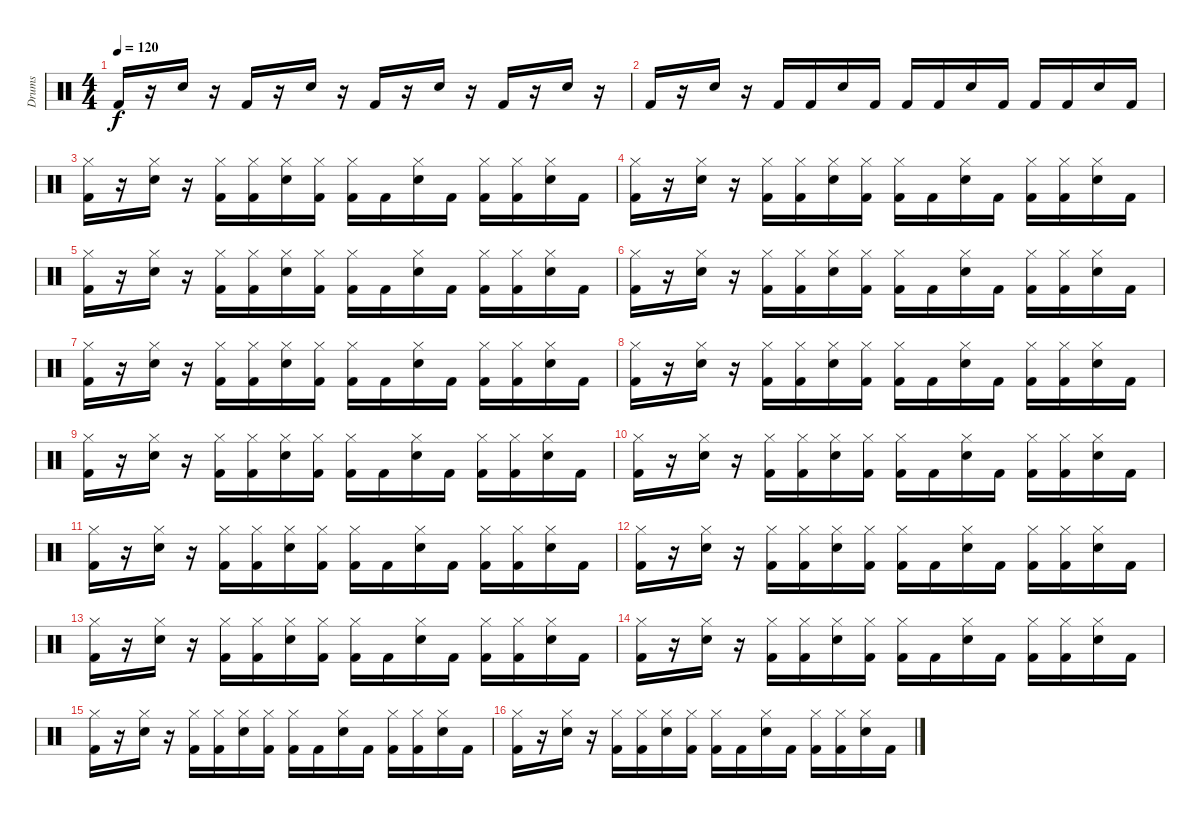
\track ("Drums" "Drums") {instrument percussion}
\staff {score}
\articulation defaults
\ts (4 4)
\tempo 120
\clef neutral
\ks c "Kick (hit) 2".16{dy f}
r.16 "Snare (hit) 2".16 r.16 "Kick (hit) 2".16 r.16 "Snare (hit) 2".16 r.16 "Kick (hit) 2".16 r.16 "Snare (hit) 2".16 r.16 "Kick (hit) 2".16 r.16 "Snare (hit) 2".16 r.16 |
"Kick (hit) 2".16 r.16 "Snare (hit) 2".16 r.16 "Kick (hit) 2".16 "Kick (hit) 2".16 "Snare (hit) 2".16 "Kick (hit) 2".16 "Kick (hit) 2".16 "Kick (hit) 2".16 "Snare (hit) 2".16 "Kick (hit) 2".16 "Kick (hit) 2".16 "Kick (hit) 2".16 "Snare (hit) 2".16 "Kick (hit) 2".16 |
("Hi-Hat (closed)" "Kick (hit) 2").16 r.16 ("Hi-Hat (closed)" "Snare (hit) 2").16 r.16 ("Hi-Hat (closed)" "Kick (hit) 2").16 ("Hi-Hat (closed)" "Kick (hit) 2").16 ("Hi-Hat (closed)" "Snare (hit) 2").16 ("Hi-Hat (closed)" "Kick (hit) 2").16 ("Hi-Hat (closed)" "Kick (hit) 2").16 "Kick (hit) 2".16 ("Hi-Hat (closed)" "Snare (hit) 2").16 "Kick (hit) 2".16 ("Hi-Hat (closed)" "Kick (hit) 2").16 ("Hi-Hat (closed)" "Kick (hit) 2").16 ("Hi-Hat (closed)" "Snare (hit) 2").16 "Kick (hit) 2".16 |
("Hi-Hat (closed)" "Kick (hit) 2").16 r.16 ("Hi-Hat (closed)" "Snare (hit) 2").16 r.16 ("Hi-Hat (closed)" "Kick (hit) 2").16 ("Hi-Hat (closed)" "Kick (hit) 2").16 ("Hi-Hat (closed)" "Snare (hit) 2").16 ("Hi-Hat (closed)" "Kick (hit) 2").16 ("Hi-Hat (closed)" "Kick (hit) 2").16 "Kick (hit) 2".16 ("Hi-Hat (closed)" "Snare (hit) 2").16 "Kick (hit) 2".16 ("Hi-Hat (closed)" "Kick (hit) 2").16 ("Hi-Hat (closed)" "Kick (hit) 2").16 ("Hi-Hat (closed)" "Snare (hit) 2").16 "Kick (hit) 2".16 |
("Hi-Hat (closed)" "Kick (hit) 2").16 r.16 ("Hi-Hat (closed)" "Snare (hit) 2").16 r.16 ("Hi-Hat (closed)" "Kick (hit) 2").16 ("Hi-Hat (closed)" "Kick (hit) 2").16 ("Hi-Hat (closed)" "Snare (hit) 2").16 ("Hi-Hat (closed)" "Kick (hit) 2").16 ("Hi-Hat (closed)" "Kick (hit) 2").16 "Kick (hit) 2".16 ("Hi-Hat (closed)" "Snare (hit) 2").16 "Kick (hit) 2".16 ("Hi-Hat (closed)" "Kick (hit) 2").16 ("Hi-Hat (closed)" "Kick (hit) 2").16 ("Hi-Hat (closed)" "Snare (hit) 2").16 "Kick (hit) 2".16 |
("Hi-Hat (closed)" "Kick (hit) 2").16 r.16 ("Hi-Hat (closed)" "Snare (hit) 2").16 r.16 ("Hi-Hat (closed)" "Kick (hit) 2").16 ("Hi-Hat (closed)" "Kick (hit) 2").16 ("Hi-Hat (closed)" "Snare (hit) 2").16 ("Hi-Hat (closed)" "Kick (hit) 2").16 ("Hi-Hat (closed)" "Kick (hit) 2").16 "Kick (hit) 2".16 ("Hi-Hat (closed)" "Snare (hit) 2").16 "Kick (hit) 2".16 ("Hi-Hat (closed)" "Kick (hit) 2").16 ("Hi-Hat (closed)" "Kick (hit) 2").16 ("Hi-Hat (closed)" "Snare (hit) 2").16 "Kick (hit) 2".16 |
("Hi-Hat (closed)" "Kick (hit) 2").16 r.16 ("Hi-Hat (closed)" "Snare (hit) 2").16 r.16 ("Hi-Hat (closed)" "Kick (hit) 2").16 ("Hi-Hat (closed)" "Kick (hit) 2").16 ("Hi-Hat (closed)" "Snare (hit) 2").16 ("Hi-Hat (closed)" "Kick (hit) 2").16 ("Hi-Hat (closed)" "Kick (hit) 2").16 "Kick (hit) 2".16 ("Hi-Hat (closed)" "Snare (hit) 2").16 "Kick (hit) 2".16 ("Hi-Hat (closed)" "Kick (hit) 2").16 ("Hi-Hat (closed)" "Kick (hit) 2").16 ("Hi-Hat (closed)" "Snare (hit) 2").16 "Kick (hit) 2".16 |
("Hi-Hat (closed)" "Kick (hit) 2").16 r.16 ("Hi-Hat (closed)" "Snare (hit) 2").16 r.16 ("Hi-Hat (closed)" "Kick (hit) 2").16 ("Hi-Hat (closed)" "Kick (hit) 2").16 ("Hi-Hat (closed)" "Snare (hit) 2").16 ("Hi-Hat (closed)" "Kick (hit) 2").16 ("Hi-Hat (closed)" "Kick (hit) 2").16 "Kick (hit) 2".16 ("Hi-Hat (closed)" "Snare (hit) 2").16 "Kick (hit) 2".16 ("Hi-Hat (closed)" "Kick (hit) 2").16 ("Hi-Hat (closed)" "Kick (hit) 2").16 ("Hi-Hat (closed)" "Snare (hit) 2").16 "Kick (hit) 2".16 |
("Hi-Hat (closed)" "Kick (hit) 2").16 r.16 ("Hi-Hat (closed)" "Snare (hit) 2").16 r.16 ("Hi-Hat (closed)" "Kick (hit) 2").16 ("Hi-Hat (closed)" "Kick (hit) 2").16 ("Hi-Hat (closed)" "Snare (hit) 2").16 ("Hi-Hat (closed)" "Kick (hit) 2").16 ("Hi-Hat (closed)" "Kick (hit) 2").16 "Kick (hit) 2".16 ("Hi-Hat (closed)" "Snare (hit) 2").16 "Kick (hit) 2".16 ("Hi-Hat (closed)" "Kick (hit) 2").16 ("Hi-Hat (closed)" "Kick (hit) 2").16 ("Hi-Hat (closed)" "Snare (hit) 2").16 "Kick (hit) 2".16 |
("Hi-Hat (closed)" "Kick (hit) 2").16 r.16 ("Hi-Hat (closed)" "Snare (hit) 2").16 r.16 ("Hi-Hat (closed)" "Kick (hit) 2").16 ("Hi-Hat (closed)" "Kick (hit) 2").16 ("Hi-Hat (closed)" "Snare (hit) 2").16 ("Hi-Hat (closed)" "Kick (hit) 2").16 ("Hi-Hat (closed)" "Kick (hit) 2").16 "Kick (hit) 2".16 ("Hi-Hat (closed)" "Snare (hit) 2").16 "Kick (hit) 2".16 ("Hi-Hat (closed)" "Kick (hit) 2").16 ("Hi-Hat (closed)" "Kick (hit) 2").16 ("Hi-Hat (closed)" "Snare (hit) 2").16 "Kick (hit) 2".16 |
("Hi-Hat (closed)" "Kick (hit) 2").16 r.16 ("Hi-Hat (closed)" "Snare (hit) 2").16 r.16 ("Hi-Hat (closed)" "Kick (hit) 2").16 ("Hi-Hat (closed)" "Kick (hit) 2").16 ("Hi-Hat (closed)" "Snare (hit) 2").16 ("Hi-Hat (closed)" "Kick (hit) 2").16 ("Hi-Hat (closed)" "Kick (hit) 2").16 "Kick (hit) 2".16 ("Hi-Hat (closed)" "Snare (hit) 2").16 "Kick (hit) 2".16 ("Hi-Hat (closed)" "Kick (hit) 2").16 ("Hi-Hat (closed)" "Kick (hit) 2").16 ("Hi-Hat (closed)" "Snare (hit) 2").16 "Kick (hit) 2".16 |
("Hi-Hat (closed)" "Kick (hit) 2").16 r.16 ("Hi-Hat (closed)" "Snare (hit) 2").16 r.16 ("Hi-Hat (closed)" "Kick (hit) 2").16 ("Hi-Hat (closed)" "Kick (hit) 2").16 ("Hi-Hat (closed)" "Snare (hit) 2").16 ("Hi-Hat (closed)" "Kick (hit) 2").16 ("Hi-Hat (closed)" "Kick (hit) 2").16 "Kick (hit) 2".16 ("Hi-Hat (closed)" "Snare (hit) 2").16 "Kick (hit) 2".16 ("Hi-Hat (closed)" "Kick (hit) 2").16 ("Hi-Hat (closed)" "Kick (hit) 2").16 ("Hi-Hat (closed)" "Snare (hit) 2").16 "Kick (hit) 2".16 |
("Hi-Hat (closed)" "Kick (hit) 2").16 r.16 ("Hi-Hat (closed)" "Snare (hit) 2").16 r.16 ("Hi-Hat (closed)" "Kick (hit) 2").16 ("Hi-Hat (closed)" "Kick (hit) 2").16 ("Hi-Hat (closed)" "Snare (hit) 2").16 ("Hi-Hat (closed)" "Kick (hit) 2").16 ("Hi-Hat (closed)" "Kick (hit) 2").16 "Kick (hit) 2".16 ("Hi-Hat (closed)" "Snare (hit) 2").16 "Kick (hit) 2".16 ("Hi-Hat (closed)" "Kick (hit) 2").16 ("Hi-Hat (closed)" "Kick (hit) 2").16 ("Hi-Hat (closed)" "Snare (hit) 2").16 "Kick (hit) 2".16 |
("Hi-Hat (closed)" "Kick (hit) 2").16 r.16 ("Hi-Hat (closed)" "Snare (hit) 2").16 r.16 ("Hi-Hat (closed)" "Kick (hit) 2").16 ("Hi-Hat (closed)" "Kick (hit) 2").16 ("Hi-Hat (closed)" "Snare (hit) 2").16 ("Hi-Hat (closed)" "Kick (hit) 2").16 ("Hi-Hat (closed)" "Kick (hit) 2").16 "Kick (hit) 2".16 ("Hi-Hat (closed)" "Snare (hit) 2").16 "Kick (hit) 2".16 ("Hi-Hat (closed)" "Kick (hit) 2").16 ("Hi-Hat (closed)" "Kick (hit) 2").16 ("Hi-Hat (closed)" "Snare (hit) 2").16 "Kick (hit) 2".16 |
("Hi-Hat (closed)" "Kick (hit) 2").16 r.16 ("Hi-Hat (closed)" "Snare (hit) 2").16 r.16 ("Hi-Hat (closed)" "Kick (hit) 2").16 ("Hi-Hat (closed)" "Kick (hit) 2").16 ("Hi-Hat (closed)" "Snare (hit) 2").16 ("Hi-Hat (closed)" "Kick (hit) 2").16 ("Hi-Hat (closed)" "Kick (hit) 2").16 "Kick (hit) 2".16 ("Hi-Hat (closed)" "Snare (hit) 2").16 "Kick (hit) 2".16 ("Hi-Hat (closed)" "Kick (hit) 2").16 ("Hi-Hat (closed)" "Kick (hit) 2").16 ("Hi-Hat (closed)" "Snare (hit) 2").16 "Kick (hit) 2".16 |
("Hi-Hat (closed)" "Kick (hit) 2").16 r.16 ("Hi-Hat (closed)" "Snare (hit) 2").16 r.16 ("Hi-Hat (closed)" "Kick (hit) 2").16 ("Hi-Hat (closed)" "Kick (hit) 2").16 ("Hi-Hat (closed)" "Snare (hit) 2").16 ("Hi-Hat (closed)" "Kick (hit) 2").16 ("Hi-Hat (closed)" "Kick (hit) 2").16 "Kick (hit) 2".16 ("Hi-Hat (closed)" "Snare (hit) 2").16 "Kick (hit) 2".16 ("Hi-Hat (closed)" "Kick (hit) 2").16 ("Hi-Hat (closed)" "Kick (hit) 2").16 ("Hi-Hat (closed)" "Snare (hit) 2").16 "Kick (hit) 2".16
